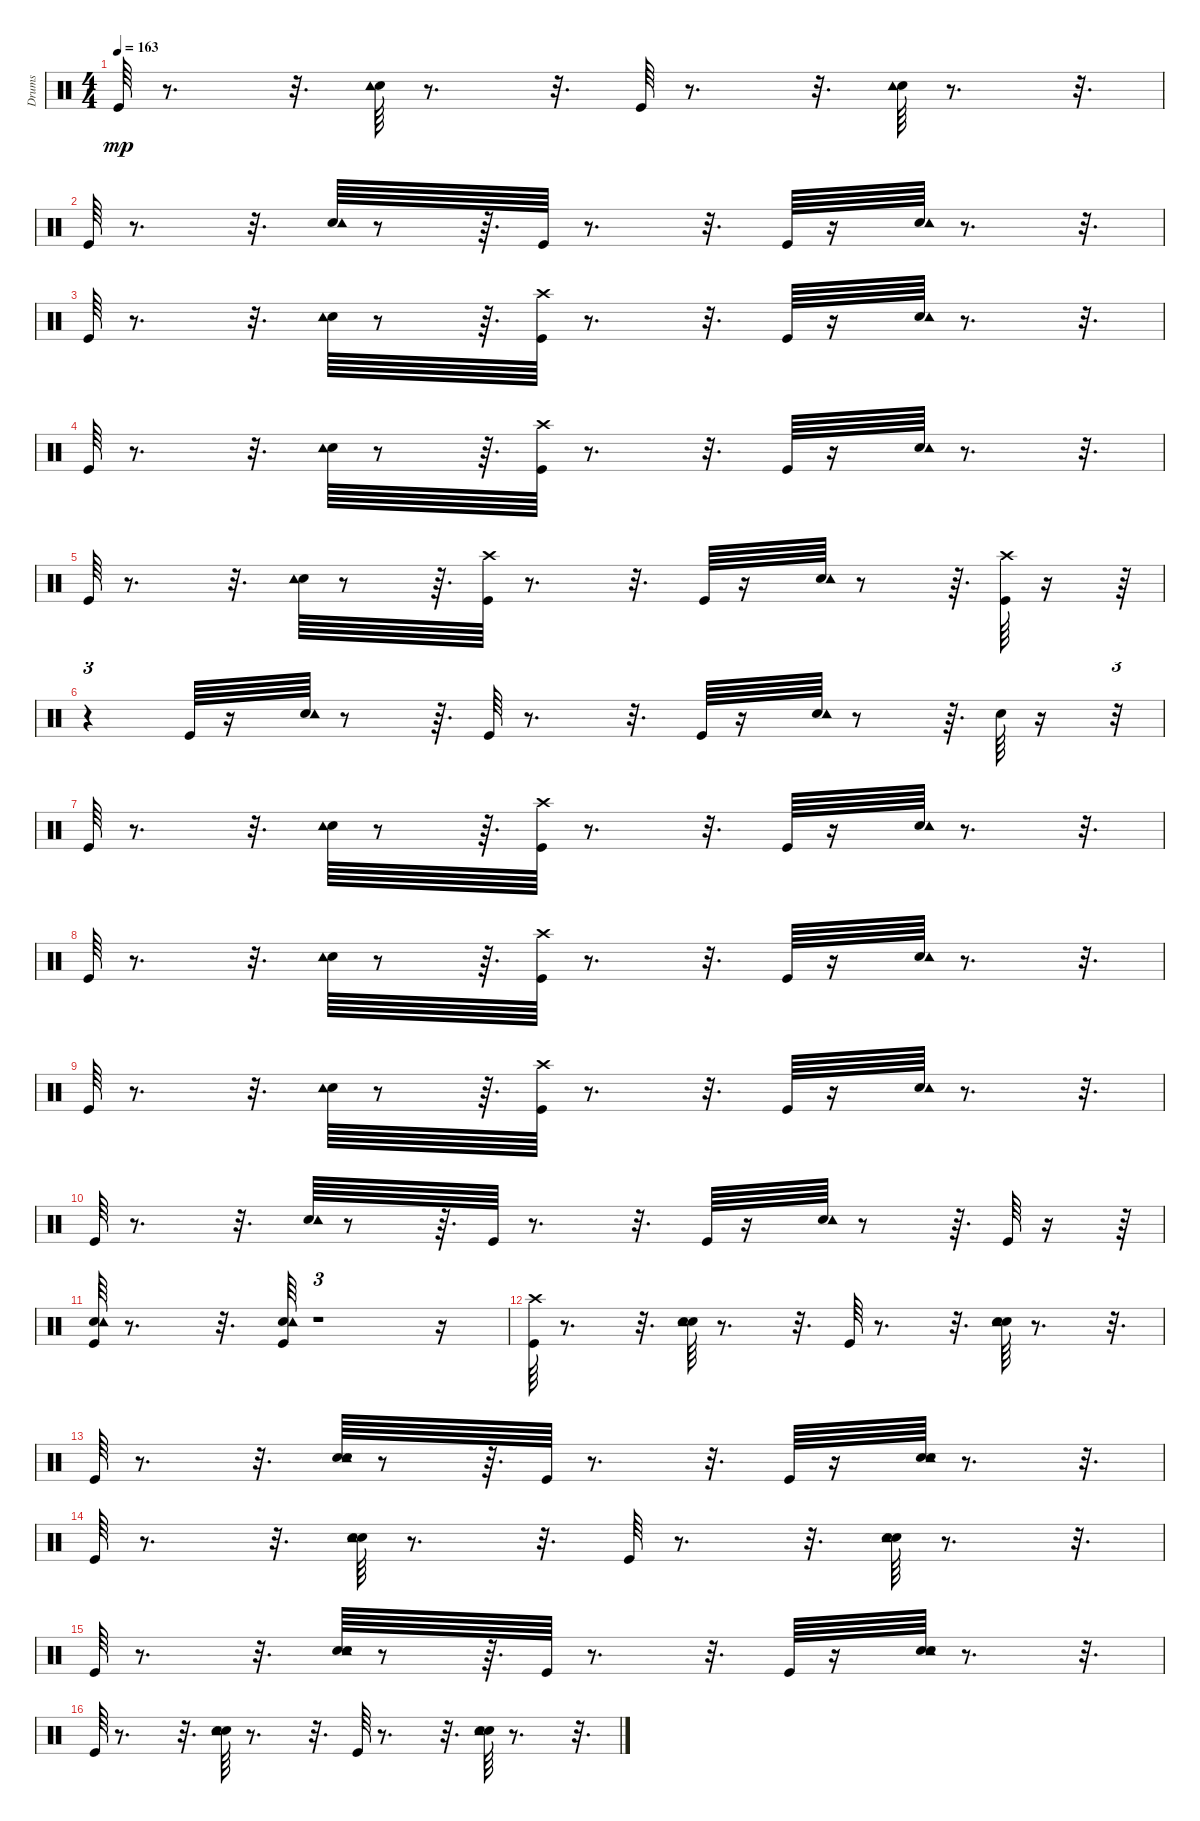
\track ("Drums" "Drums") {instrument percussion}
\staff {score}
\articulation defaults
\ts (4 4)
\tempo 163
\clef neutral
\ks c "Kick (hit)".64{dy mp}
r.8{d} r.32{d} ("Snare (hit) 2" "Tambourine (hit)").64 r.8{d} r.32{d} "Kick (hit)".64 r.8{d} r.32{d} ("Snare (hit) 2" "Tambourine (hit)").64 r.8{d} r.32{d} |
"Kick (hit)".64 r.8{d} r.32{d} ("Snare (hit) 2" "Tambourine (hit)").64 r.8 r.64{d} "Kick (hit)".64 r.8{d} r.32{d} "Kick (hit)".64 r.16 ("Snare (hit) 2" "Tambourine (hit)").64 r.8{d} r.32{d} |
"Kick (hit)".64 r.8{d} r.32{d} ("Snare (hit) 2" "Tambourine (hit)").64 r.8 r.64{d} ("Kick (hit)" "Crash high (hit)").64 r.8{d} r.32{d} "Kick (hit)".64 r.16 ("Snare (hit) 2" "Tambourine (hit)").64 r.8{d} r.32{d} |
"Kick (hit)".64 r.8{d} r.32{d} ("Snare (hit) 2" "Tambourine (hit)").64 r.8 r.64{d} ("Kick (hit)" "Crash high (hit)").64 r.8{d} r.32{d} "Kick (hit)".64 r.16 ("Snare (hit) 2" "Tambourine (hit)").64 r.8{d} r.32{d} |
"Kick (hit)".64 r.8{d} r.32{d} ("Snare (hit) 2" "Tambourine (hit)").64 r.8 r.64{d} ("Kick (hit)" "Crash high (hit)").64 r.8{d} r.32{d} "Kick (hit)".64 r.16 ("Snare (hit) 2" "Tambourine (hit)").64 r.8 r.64{d} ("Kick (hit)" "Crash high (hit)").64 r.16 r.64 |
r.4{tu (3 2)} "Kick (hit)".64 r.16 ("Snare (hit) 2" "Tambourine (hit)").64 r.8 r.64{d} "Kick (hit)".64 r.8{d} r.32{d} "Kick (hit)".64 r.16 ("Snare (hit) 2" "Tambourine (hit)").64 r.8 r.64{d} "Snare (hit) 2".64 r.16 r.32{tu (3 2)} |
"Kick (hit)".64 r.8{d} r.32{d} ("Snare (hit) 2" "Tambourine (hit)").64 r.8 r.64{d} ("Kick (hit)" "Crash high (hit)").64 r.8{d} r.32{d} "Kick (hit)".64 r.16 ("Snare (hit) 2" "Tambourine (hit)").64 r.8{d} r.32{d} |
"Kick (hit)".64 r.8{d} r.32{d} ("Snare (hit) 2" "Tambourine (hit)").64 r.8 r.64{d} ("Kick (hit)" "Crash high (hit)").64 r.8{d} r.32{d} "Kick (hit)".64 r.16 ("Snare (hit) 2" "Tambourine (hit)").64 r.8{d} r.32{d} |
"Kick (hit)".64 r.8{d} r.32{d} ("Snare (hit) 2" "Tambourine (hit)").64 r.8 r.64{d} ("Kick (hit)" "Crash high (hit)").64 r.8{d} r.32{d} "Kick (hit)".64 r.16 ("Snare (hit) 2" "Tambourine (hit)").64 r.8{d} r.32{d} |
"Kick (hit)".64 r.8{d} r.32{d} ("Snare (hit) 2" "Tambourine (hit)").64 r.8 r.64{d} "Kick (hit)".64 r.8{d} r.32{d} "Kick (hit)".64 r.16 ("Snare (hit) 2" "Tambourine (hit)").64 r.8 r.64{d} "Kick (hit)".64 r.16 r.64 |
("Kick (hit)" "Snare (hit) 2" "Tambourine (hit)").64 r.8{d} r.32{d} ("Kick (hit)" "Snare (hit) 2" "Tambourine (hit)").64 r.1{tu (3 2)} r.16 |
("Kick (hit)" "Crash high (hit)").64 r.8{d} r.32{d} ("Snare (hit) 2" "Tambourine (hit)" "Hand Clap (hit)").64 r.8{d} r.32{d} "Kick (hit)".64 r.8{d} r.32{d} ("Snare (hit) 2" "Tambourine (hit)" "Hand Clap (hit)").64 r.8{d} r.32{d} |
"Kick (hit)".64 r.8{d} r.32{d} ("Snare (hit) 2" "Tambourine (hit)" "Hand Clap (hit)").64 r.8 r.64{d} "Kick (hit)".64 r.8{d} r.32{d} "Kick (hit)".64 r.16 ("Snare (hit) 2" "Tambourine (hit)" "Hand Clap (hit)").64 r.8{d} r.32{d} |
"Kick (hit)".64 r.8{d} r.32{d} ("Snare (hit) 2" "Tambourine (hit)" "Hand Clap (hit)").64 r.8{d} r.32{d} "Kick (hit)".64 r.8{d} r.32{d} ("Snare (hit) 2" "Tambourine (hit)" "Hand Clap (hit)").64 r.8{d} r.32{d} |
"Kick (hit)".64 r.8{d} r.32{d} ("Snare (hit) 2" "Tambourine (hit)" "Hand Clap (hit)").64 r.8 r.64{d} "Kick (hit)".64 r.8{d} r.32{d} "Kick (hit)".64 r.16 ("Snare (hit) 2" "Tambourine (hit)" "Hand Clap (hit)").64 r.8{d} r.32{d} |
"Kick (hit)".64 r.8{d} r.32{d} ("Snare (hit) 2" "Tambourine (hit)" "Hand Clap (hit)").64 r.8{d} r.32{d} "Kick (hit)".64 r.8{d} r.32{d} ("Snare (hit) 2" "Tambourine (hit)" "Hand Clap (hit)").64 r.8{d} r.32{d}
